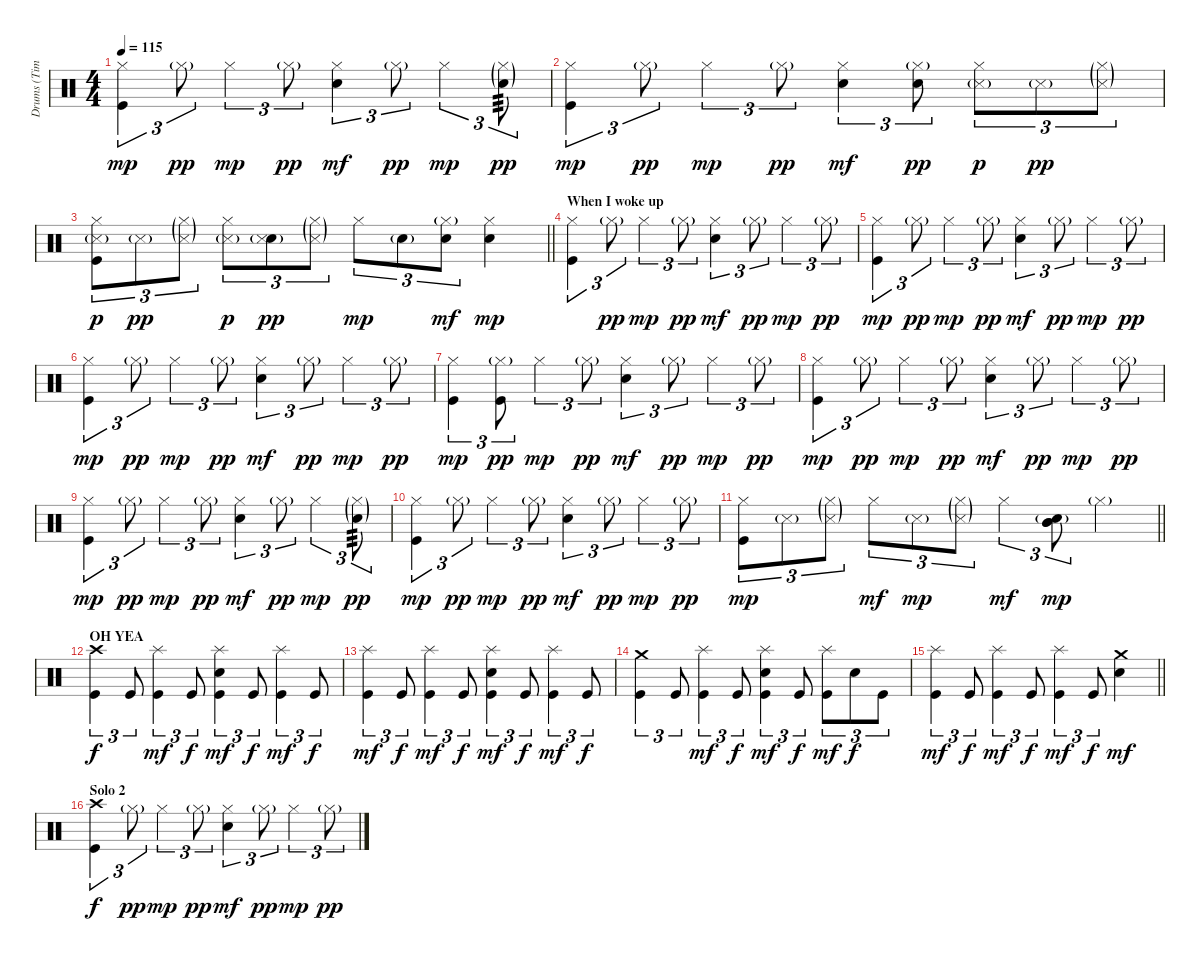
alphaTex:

\track ("Drums (Tim Alexander)" "Drums (Tim") {instrument percussion}
\staff {score}
\articulation defaults
\ts (4 4)
\tempo 115
\clef neutral
\ks c
("Hi-Hat (closed)" "Kick (hit)").4{tu (3 2) dy mp} "Hi-Hat (closed)"{g}.8{tu (3 2) dy pp} "Hi-Hat (closed)".4{tu (3 2) dy mp} "Hi-Hat (closed)"{g}.8{tu (3 2) dy pp} ("Hi-Hat (closed)" "Electric Snare (hit)").4{tu (3 2) dy mf} "Hi-Hat (closed)"{g}.8{tu (3 2) dy pp} "Hi-Hat (closed)".4{tu (3 2) dy mp} ("Hi-Hat (closed)"{g} "Electric Snare (hit)"{g}).8{tu (3 2) tp 3 dy pp} |
("Hi-Hat (closed)" "Kick (hit)").4{tu (3 2) dy mp} "Hi-Hat (closed)"{g}.8{tu (3 2) dy pp} "Hi-Hat (closed)".4{tu (3 2) dy mp} "Hi-Hat (closed)"{g}.8{tu (3 2) dy pp} ("Hi-Hat (closed)" "Electric Snare (hit)").4{tu (3 2) dy mf} ("Hi-Hat (closed)"{g} "Electric Snare (hit)").8{tu (3 2) dy pp} ("Hi-Hat (closed)" "Snare (side stick) 3"{g}).8{tu (3 2) dy p} "Snare (side stick) 3"{g}.8{tu (3 2) dy pp} ("Hi-Hat (closed)"{g} "Snare (side stick) 3"{g}).8{tu (3 2)} |
\barLineRight lightlight
("Hi-Hat (closed)" "Snare (side stick) 3"{g} "Kick (hit)").8{tu (3 2) dy p} "Snare (side stick) 3"{g}.8{tu (3 2) dy pp} ("Hi-Hat (closed)"{g} "Snare (side stick) 3"{g}).8{tu (3 2)} ("Hi-Hat (closed)" "Snare (side stick) 3"{g}).8{tu (3 2) dy p} ("Electric Snare (hit)"{g} "Snare (side stick) 3"{g}).8{tu (3 2) dy pp} ("Hi-Hat (closed)"{g} "Snare (side stick) 3"{g}).8{tu (3 2)} "Hi-Hat (closed)".8{tu (3 2) dy mp} "Electric Snare (hit)"{g}.8{tu (3 2)} ("Hi-Hat (closed)"{g} "Electric Snare (hit)").8{tu (3 2) dy mf} ("Hi-Hat (closed)" "Electric Snare (hit)").4{dy mp} |
\section ("" "When I woke up")
("Hi-Hat (closed)" "Kick (hit)").4{tu (3 2)} "Hi-Hat (closed)"{g}.8{tu (3 2) dy pp} "Hi-Hat (closed)".4{tu (3 2) dy mp} "Hi-Hat (closed)"{g}.8{tu (3 2) dy pp} ("Hi-Hat (closed)" "Electric Snare (hit)").4{tu (3 2) dy mf} "Hi-Hat (closed)"{g}.8{tu (3 2) dy pp} "Hi-Hat (closed)".4{tu (3 2) dy mp} "Hi-Hat (closed)"{g}.8{tu (3 2) dy pp} |
("Hi-Hat (closed)" "Kick (hit)").4{tu (3 2) dy mp} "Hi-Hat (closed)"{g}.8{tu (3 2) dy pp} "Hi-Hat (closed)".4{tu (3 2) dy mp} "Hi-Hat (closed)"{g}.8{tu (3 2) dy pp} ("Hi-Hat (closed)" "Electric Snare (hit)").4{tu (3 2) dy mf} "Hi-Hat (closed)"{g}.8{tu (3 2) dy pp} "Hi-Hat (closed)".4{tu (3 2) dy mp} "Hi-Hat (closed)"{g}.8{tu (3 2) dy pp} |
("Hi-Hat (closed)" "Kick (hit)").4{tu (3 2) dy mp} "Hi-Hat (closed)"{g}.8{tu (3 2) dy pp} "Hi-Hat (closed)".4{tu (3 2) dy mp} "Hi-Hat (closed)"{g}.8{tu (3 2) dy pp} ("Hi-Hat (closed)" "Electric Snare (hit)").4{tu (3 2) dy mf} "Hi-Hat (closed)"{g}.8{tu (3 2) dy pp} "Hi-Hat (closed)".4{tu (3 2) dy mp} "Hi-Hat (closed)"{g}.8{tu (3 2) dy pp} |
("Hi-Hat (closed)" "Kick (hit)").4{tu (3 2) dy mp} ("Hi-Hat (closed)"{g} "Kick (hit)").8{tu (3 2) dy pp} "Hi-Hat (closed)".4{tu (3 2) dy mp} "Hi-Hat (closed)"{g}.8{tu (3 2) dy pp} ("Hi-Hat (closed)" "Electric Snare (hit)").4{tu (3 2) dy mf} "Hi-Hat (closed)"{g}.8{tu (3 2) dy pp} "Hi-Hat (closed)".4{tu (3 2) dy mp} "Hi-Hat (closed)"{g}.8{tu (3 2) dy pp} |
("Hi-Hat (closed)" "Kick (hit)").4{tu (3 2) dy mp} "Hi-Hat (closed)"{g}.8{tu (3 2) dy pp} "Hi-Hat (closed)".4{tu (3 2) dy mp} "Hi-Hat (closed)"{g}.8{tu (3 2) dy pp} ("Hi-Hat (closed)" "Electric Snare (hit)").4{tu (3 2) dy mf} "Hi-Hat (closed)"{g}.8{tu (3 2) dy pp} "Hi-Hat (closed)".4{tu (3 2) dy mp} "Hi-Hat (closed)"{g}.8{tu (3 2) dy pp} |
("Hi-Hat (closed)" "Kick (hit)").4{tu (3 2) dy mp} "Hi-Hat (closed)"{g}.8{tu (3 2) dy pp} "Hi-Hat (closed)".4{tu (3 2) dy mp} "Hi-Hat (closed)"{g}.8{tu (3 2) dy pp} ("Hi-Hat (closed)" "Electric Snare (hit)").4{tu (3 2) dy mf} "Hi-Hat (closed)"{g}.8{tu (3 2) dy pp} "Hi-Hat (closed)".4{tu (3 2) dy mp} ("Hi-Hat (closed)"{g} "Electric Snare (hit)"{g}).8{tu (3 2) tp 3 dy pp} |
("Hi-Hat (closed)" "Kick (hit)").4{tu (3 2) dy mp} "Hi-Hat (closed)"{g}.8{tu (3 2) dy pp} "Hi-Hat (closed)".4{tu (3 2) dy mp} "Hi-Hat (closed)"{g}.8{tu (3 2) dy pp} ("Hi-Hat (closed)" "Electric Snare (hit)").4{tu (3 2) dy mf} "Hi-Hat (closed)"{g}.8{tu (3 2) dy pp} "Hi-Hat (closed)".4{tu (3 2) dy mp} "Hi-Hat (closed)"{g}.8{tu (3 2) dy pp} |
\barLineRight lightlight
("Hi-Hat (closed)" "Kick (hit)").8{tu (3 2) dy mp} "Snare (side stick) 3"{g}.8{tu (3 2)} ("Hi-Hat (closed)"{g} "Snare (side stick) 3"{g}).8{tu (3 2)} "Hi-Hat (closed)".8{tu (3 2) dy mf} "Snare (side stick) 3"{g}.8{tu (3 2) dy mp} ("Hi-Hat (closed)"{g} "Snare (side stick) 3"{g}).8{tu (3 2)} "Hi-Hat (closed)".4{tu (3 2) dy mf} ("Mid Tom (hit)" "Mid Tom (hit)" "Electric Snare (hit)"{g}).8{tu (3 2) bd 60 dy mp} "Hi-Hat (closed)"{g}.4 |
\section ("" "OH YEA")
("Crash high (hit)" "Kick (hit)").4{tu (3 2) dy f volume 13} "Kick (hit)".8{tu (3 2)} ("Splash (hit)" "Kick (hit)").4{tu (3 2) dy mf} "Kick (hit)".8{tu (3 2) dy f} ("Splash (hit)" "Electric Snare (hit)" "Kick (hit)").4{tu (3 2) dy mf} "Kick (hit)".8{tu (3 2) dy f} ("Splash (hit)" "Kick (hit)").4{tu (3 2) dy mf} "Kick (hit)".8{tu (3 2) dy f} |
("Splash (hit)" "Kick (hit)").4{tu (3 2) dy mf} "Kick (hit)".8{tu (3 2) dy f} ("Splash (hit)" "Kick (hit)").4{tu (3 2) dy mf} "Kick (hit)".8{tu (3 2) dy f} ("Splash (hit)" "Electric Snare (hit)" "Kick (hit)").4{tu (3 2) dy mf} "Kick (hit)".8{tu (3 2) dy f} ("Splash (hit)" "Kick (hit)").4{tu (3 2) dy mf} "Kick (hit)".8{tu (3 2) dy f} |
("Crash medium (hit)" "Kick (hit)").4{tu (3 2)} "Kick (hit)".8{tu (3 2)} ("Splash (hit)" "Kick (hit)").4{tu (3 2) dy mf} "Kick (hit)".8{tu (3 2) dy f} ("Splash (hit)" "Electric Snare (hit)" "Kick (hit)").4{tu (3 2) dy mf} "Kick (hit)".8{tu (3 2) dy f} ("Splash (hit)" "Kick (hit)").8{tu (3 2) dy mf} "Electric Snare (hit)".8{tu (3 2) dy f} "Kick (hit)".8{tu (3 2)} |
\barLineRight lightlight
("Splash (hit)" "Kick (hit)").4{tu (3 2) dy mf} "Kick (hit)".8{tu (3 2) dy f} ("Splash (hit)" "Kick (hit)").4{tu (3 2) dy mf} "Kick (hit)".8{tu (3 2) dy f} ("Splash (hit)" "Kick (hit)").4{tu (3 2) dy mf} "Kick (hit)".8{tu (3 2) dy f} ("Crash medium (hit)" "Electric Snare (hit)").4{dy mf} |
\section ("" "Solo 2")
("Crash high (hit)" "Kick (hit)").4{tu (3 2) dy f volume 13} "Hi-Hat (closed)"{g}.8{tu (3 2) dy pp} "Hi-Hat (closed)".4{tu (3 2) dy mp} "Hi-Hat (closed)"{g}.8{tu (3 2) dy pp} ("Hi-Hat (closed)" "Electric Snare (hit)").4{tu (3 2) dy mf} "Hi-Hat (closed)"{g}.8{tu (3 2) dy pp} "Hi-Hat (closed)".4{tu (3 2) dy mp} "Hi-Hat (closed)"{g}.8{tu (3 2) dy pp}
